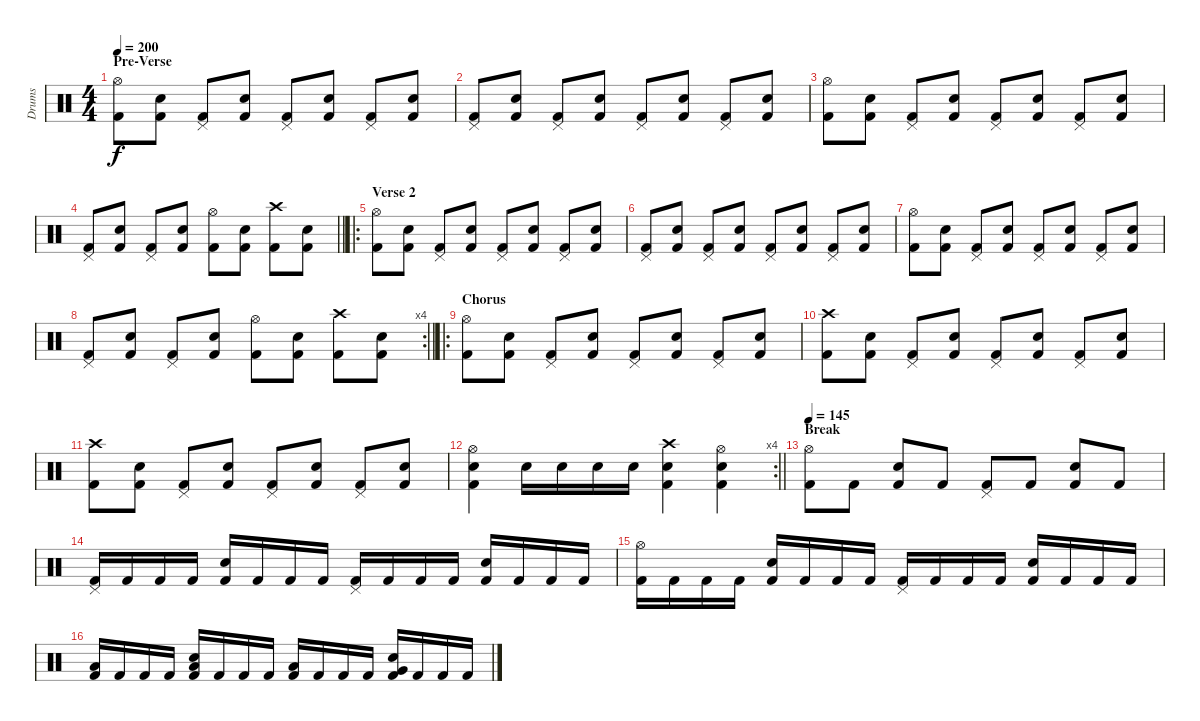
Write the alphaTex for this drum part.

\track ("Drums" "Drums") {instrument percussion}
\staff {score}
\articulation defaults
\ts (4 4)
\section ("" "Pre-Verse")
\tempo 200
\clef neutral
\ks c
("Hi-Hat (open)" "Kick (hit) 2").8{dy f} ("Snare (hit) 2" "Kick (hit) 2").8 ("Pedal Hi-Hat (hit)" "Kick (hit) 2").8 ("Snare (hit) 2" "Kick (hit) 2").8 ("Pedal Hi-Hat (hit)" "Kick (hit) 2").8 ("Snare (hit) 2" "Kick (hit) 2").8 ("Pedal Hi-Hat (hit)" "Kick (hit) 2").8 ("Snare (hit) 2" "Kick (hit) 2").8 |
("Pedal Hi-Hat (hit)" "Kick (hit) 2").8 ("Snare (hit) 2" "Kick (hit) 2").8 ("Pedal Hi-Hat (hit)" "Kick (hit) 2").8 ("Snare (hit) 2" "Kick (hit) 2").8 ("Pedal Hi-Hat (hit)" "Kick (hit) 2").8 ("Snare (hit) 2" "Kick (hit) 2").8 ("Pedal Hi-Hat (hit)" "Kick (hit) 2").8 ("Snare (hit) 2" "Kick (hit) 2").8 |
("Hi-Hat (open)" "Kick (hit) 2").8 ("Snare (hit) 2" "Kick (hit) 2").8 ("Pedal Hi-Hat (hit)" "Kick (hit) 2").8 ("Snare (hit) 2" "Kick (hit) 2").8 ("Pedal Hi-Hat (hit)" "Kick (hit) 2").8 ("Snare (hit) 2" "Kick (hit) 2").8 ("Pedal Hi-Hat (hit)" "Kick (hit) 2").8 ("Snare (hit) 2" "Kick (hit) 2").8 |
\barLineRight lightlight
("Pedal Hi-Hat (hit)" "Kick (hit) 2").8 ("Snare (hit) 2" "Kick (hit) 2").8 ("Pedal Hi-Hat (hit)" "Kick (hit) 2").8 ("Snare (hit) 2" "Kick (hit) 2").8 ("Hi-Hat (open)" "Kick (hit) 2").8 ("Snare (hit) 2" "Kick (hit) 2").8 ("Crash high (hit)" "Kick (hit) 2").8 ("Snare (hit) 2" "Kick (hit) 2").8 |
\ro
\section ("" "Verse 2")
("Hi-Hat (open)" "Kick (hit) 2").8 ("Snare (hit) 2" "Kick (hit) 2").8 ("Pedal Hi-Hat (hit)" "Kick (hit) 2").8 ("Snare (hit) 2" "Kick (hit) 2").8 ("Pedal Hi-Hat (hit)" "Kick (hit) 2").8 ("Snare (hit) 2" "Kick (hit) 2").8 ("Pedal Hi-Hat (hit)" "Kick (hit) 2").8 ("Snare (hit) 2" "Kick (hit) 2").8 |
("Pedal Hi-Hat (hit)" "Kick (hit) 2").8 ("Snare (hit) 2" "Kick (hit) 2").8 ("Pedal Hi-Hat (hit)" "Kick (hit) 2").8 ("Snare (hit) 2" "Kick (hit) 2").8 ("Pedal Hi-Hat (hit)" "Kick (hit) 2").8 ("Snare (hit) 2" "Kick (hit) 2").8 ("Pedal Hi-Hat (hit)" "Kick (hit) 2").8 ("Snare (hit) 2" "Kick (hit) 2").8 |
("Hi-Hat (open)" "Kick (hit) 2").8 ("Snare (hit) 2" "Kick (hit) 2").8 ("Pedal Hi-Hat (hit)" "Kick (hit) 2").8 ("Snare (hit) 2" "Kick (hit) 2").8 ("Pedal Hi-Hat (hit)" "Kick (hit) 2").8 ("Snare (hit) 2" "Kick (hit) 2").8 ("Pedal Hi-Hat (hit)" "Kick (hit) 2").8 ("Snare (hit) 2" "Kick (hit) 2").8 |
\rc 4
\barLineRight lightlight
("Pedal Hi-Hat (hit)" "Kick (hit) 2").8 ("Snare (hit) 2" "Kick (hit) 2").8 ("Pedal Hi-Hat (hit)" "Kick (hit) 2").8 ("Snare (hit) 2" "Kick (hit) 2").8 ("Hi-Hat (open)" "Kick (hit) 2").8 ("Snare (hit) 2" "Kick (hit) 2").8 ("Crash high (hit)" "Kick (hit) 2").8 ("Snare (hit) 2" "Kick (hit) 2").8 |
\ro
\section ("" "Chorus")
("Hi-Hat (open)" "Kick (hit) 2").8 ("Snare (hit) 2" "Kick (hit) 2").8 ("Pedal Hi-Hat (hit)" "Kick (hit) 2").8 ("Snare (hit) 2" "Kick (hit) 2").8 ("Pedal Hi-Hat (hit)" "Kick (hit) 2").8 ("Snare (hit) 2" "Kick (hit) 2").8 ("Pedal Hi-Hat (hit)" "Kick (hit) 2").8 ("Snare (hit) 2" "Kick (hit) 2").8 |
("Crash high (hit)" "Kick (hit) 2").8 ("Snare (hit) 2" "Kick (hit) 2").8 ("Pedal Hi-Hat (hit)" "Kick (hit) 2").8 ("Snare (hit) 2" "Kick (hit) 2").8 ("Pedal Hi-Hat (hit)" "Kick (hit) 2").8 ("Snare (hit) 2" "Kick (hit) 2").8 ("Pedal Hi-Hat (hit)" "Kick (hit) 2").8 ("Snare (hit) 2" "Kick (hit) 2").8 |
("Crash high (hit)" "Kick (hit) 2").8 ("Snare (hit) 2" "Kick (hit) 2").8 ("Pedal Hi-Hat (hit)" "Kick (hit) 2").8 ("Snare (hit) 2" "Kick (hit) 2").8 ("Pedal Hi-Hat (hit)" "Kick (hit) 2").8 ("Snare (hit) 2" "Kick (hit) 2").8 ("Pedal Hi-Hat (hit)" "Kick (hit) 2").8 ("Snare (hit) 2" "Kick (hit) 2").8 |
\rc 4
\barLineRight lightlight
("Hi-Hat (open)" "Snare (hit) 2" "Kick (hit) 2").4 "Snare (hit) 2".16 "Snare (hit) 2".16 "Snare (hit) 2".16 "Snare (hit) 2".16 ("Crash high (hit)" "Snare (hit) 2" "Kick (hit) 2").4 ("Hi-Hat (open)" "Snare (hit) 2" "Kick (hit) 2").4 |
\section ("" "Break")
\tempo 145
("Hi-Hat (open)" "Kick (hit) 2").8 "Kick (hit) 2".8 ("Snare (hit) 2" "Kick (hit) 2").8 "Kick (hit) 2".8 ("Pedal Hi-Hat (hit)" "Kick (hit) 2").8 "Kick (hit) 2".8 ("Snare (hit) 2" "Kick (hit) 2").8 "Kick (hit) 2".8 |
("Pedal Hi-Hat (hit)" "Kick (hit) 2").16 "Kick (hit) 2".16 "Kick (hit) 2".16 "Kick (hit) 2".16 ("Snare (hit) 2" "Kick (hit) 2").16 "Kick (hit) 2".16 "Kick (hit) 2".16 "Kick (hit) 2".16 ("Pedal Hi-Hat (hit)" "Kick (hit) 2").16 "Kick (hit) 2".16 "Kick (hit) 2".16 "Kick (hit) 2".16 ("Snare (hit) 2" "Kick (hit) 2").16 "Kick (hit) 2".16 "Kick (hit) 2".16 "Kick (hit) 2".16 |
("Hi-Hat (open)" "Kick (hit) 2").16 "Kick (hit) 2".16 "Kick (hit) 2".16 "Kick (hit) 2".16 ("Snare (hit) 2" "Kick (hit) 2").16 "Kick (hit) 2".16 "Kick (hit) 2".16 "Kick (hit) 2".16 ("Pedal Hi-Hat (hit)" "Kick (hit) 2").16 "Kick (hit) 2".16 "Kick (hit) 2".16 "Kick (hit) 2".16 ("Snare (hit) 2" "Kick (hit) 2").16 "Kick (hit) 2".16 "Kick (hit) 2".16 "Kick (hit) 2".16 |
("Low Tom (hit)" "Kick (hit) 2").16 "Kick (hit) 2".16 "Kick (hit) 2".16 "Kick (hit) 2".16 ("Low Tom (hit)" "Snare (hit) 2" "Kick (hit) 2").16 "Kick (hit) 2".16 "Kick (hit) 2".16 "Kick (hit) 2".16 ("Low Tom (hit)" "Kick (hit) 2").16 "Kick (hit) 2".16 "Kick (hit) 2".16 "Kick (hit) 2".16 ("Very Low Tom (hit)" "Snare (hit) 2" "Kick (hit) 2").16 "Kick (hit) 2".16 "Kick (hit) 2".16 "Kick (hit) 2".16
